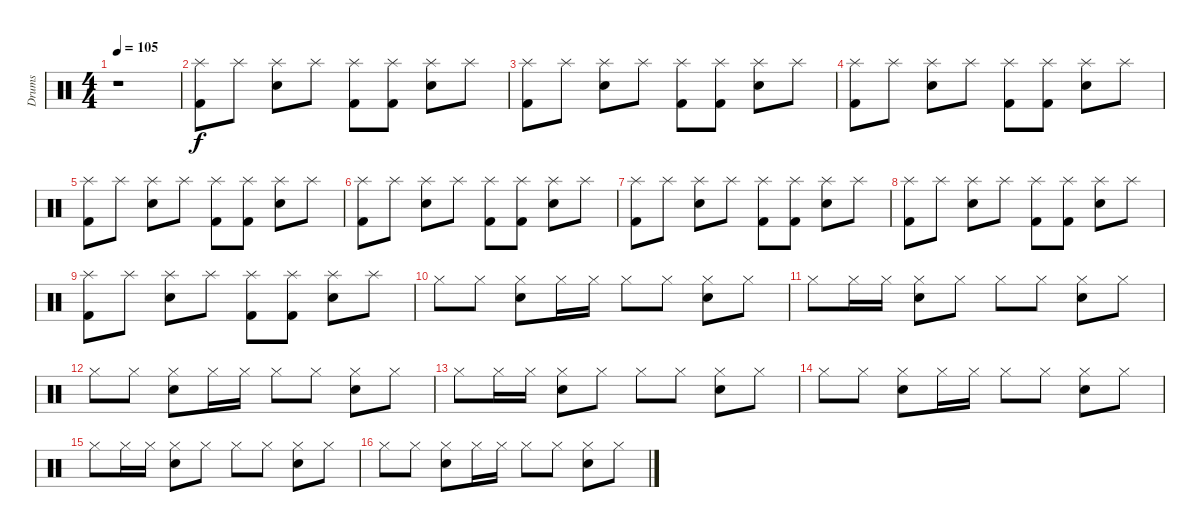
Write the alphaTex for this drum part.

\track ("Drums" "Drums") {instrument percussion}
\staff {score}
\articulation defaults
\ts (4 4)
\tempo 105
\clef neutral
\ks c
r.1{dy f} |
("Splash (hit)" "Kick (hit) 2").8 "Splash (hit)".8 ("Splash (hit)" "Snare (hit) 2").8 "Splash (hit)".8 ("Splash (hit)" "Kick (hit) 2").8 ("Splash (hit)" "Kick (hit) 2").8 ("Splash (hit)" "Snare (hit) 2").8 "Splash (hit)".8 |
("Splash (hit)" "Kick (hit) 2").8 "Splash (hit)".8 ("Splash (hit)" "Snare (hit) 2").8 "Splash (hit)".8 ("Splash (hit)" "Kick (hit) 2").8 ("Splash (hit)" "Kick (hit) 2").8 ("Splash (hit)" "Snare (hit) 2").8 "Splash (hit)".8 |
("Splash (hit)" "Kick (hit) 2").8 "Splash (hit)".8 ("Splash (hit)" "Snare (hit) 2").8 "Splash (hit)".8 ("Splash (hit)" "Kick (hit) 2").8 ("Splash (hit)" "Kick (hit) 2").8 ("Splash (hit)" "Snare (hit) 2").8 "Splash (hit)".8 |
("Splash (hit)" "Kick (hit) 2").8 "Splash (hit)".8 ("Splash (hit)" "Snare (hit) 2").8 "Splash (hit)".8 ("Splash (hit)" "Kick (hit) 2").8 ("Splash (hit)" "Kick (hit) 2").8 ("Splash (hit)" "Snare (hit) 2").8 "Splash (hit)".8 |
("Splash (hit)" "Kick (hit) 2").8 "Splash (hit)".8 ("Splash (hit)" "Snare (hit) 2").8 "Splash (hit)".8 ("Splash (hit)" "Kick (hit) 2").8 ("Splash (hit)" "Kick (hit) 2").8 ("Splash (hit)" "Snare (hit) 2").8 "Splash (hit)".8 |
("Splash (hit)" "Kick (hit) 2").8 "Splash (hit)".8 ("Splash (hit)" "Snare (hit) 2").8 "Splash (hit)".8 ("Splash (hit)" "Kick (hit) 2").8 ("Splash (hit)" "Kick (hit) 2").8 ("Splash (hit)" "Snare (hit) 2").8 "Splash (hit)".8 |
("Splash (hit)" "Kick (hit) 2").8 "Splash (hit)".8 ("Splash (hit)" "Snare (hit) 2").8 "Splash (hit)".8 ("Splash (hit)" "Kick (hit) 2").8 ("Splash (hit)" "Kick (hit) 2").8 ("Splash (hit)" "Snare (hit) 2").8 "Splash (hit)".8 |
("Splash (hit)" "Kick (hit) 2").8 "Splash (hit)".8 ("Splash (hit)" "Snare (hit) 2").8 "Splash (hit)".8 ("Splash (hit)" "Kick (hit) 2").8 ("Splash (hit)" "Kick (hit) 2").8 ("Splash (hit)" "Snare (hit) 2").8 "Splash (hit)".8 |
"Hi-Hat (closed)".8 "Hi-Hat (closed)".8 ("Hi-Hat (closed)" "Snare (hit) 2").8 "Hi-Hat (closed)".16 "Hi-Hat (closed)".16 "Hi-Hat (closed)".8 "Hi-Hat (closed)".8 ("Hi-Hat (closed)" "Snare (hit) 2").8 "Hi-Hat (closed)".8 |
"Hi-Hat (closed)".8 "Hi-Hat (closed)".16 "Hi-Hat (closed)".16 ("Hi-Hat (closed)" "Snare (hit) 2").8 "Hi-Hat (closed)".8 "Hi-Hat (closed)".8 "Hi-Hat (closed)".8 ("Hi-Hat (closed)" "Snare (hit) 2").8 "Hi-Hat (closed)".8 |
"Hi-Hat (closed)".8 "Hi-Hat (closed)".8 ("Hi-Hat (closed)" "Snare (hit) 2").8 "Hi-Hat (closed)".16 "Hi-Hat (closed)".16 "Hi-Hat (closed)".8 "Hi-Hat (closed)".8 ("Hi-Hat (closed)" "Snare (hit) 2").8 "Hi-Hat (closed)".8 |
"Hi-Hat (closed)".8 "Hi-Hat (closed)".16 "Hi-Hat (closed)".16 ("Hi-Hat (closed)" "Snare (hit) 2").8 "Hi-Hat (closed)".8 "Hi-Hat (closed)".8 "Hi-Hat (closed)".8 ("Hi-Hat (closed)" "Snare (hit) 2").8 "Hi-Hat (closed)".8 |
"Hi-Hat (closed)".8 "Hi-Hat (closed)".8 ("Hi-Hat (closed)" "Snare (hit) 2").8 "Hi-Hat (closed)".16 "Hi-Hat (closed)".16 "Hi-Hat (closed)".8 "Hi-Hat (closed)".8 ("Hi-Hat (closed)" "Snare (hit) 2").8 "Hi-Hat (closed)".8 |
"Hi-Hat (closed)".8 "Hi-Hat (closed)".16 "Hi-Hat (closed)".16 ("Hi-Hat (closed)" "Snare (hit) 2").8 "Hi-Hat (closed)".8 "Hi-Hat (closed)".8 "Hi-Hat (closed)".8 ("Hi-Hat (closed)" "Snare (hit) 2").8 "Hi-Hat (closed)".8 |
"Hi-Hat (closed)".8 "Hi-Hat (closed)".8 ("Hi-Hat (closed)" "Snare (hit) 2").8 "Hi-Hat (closed)".16 "Hi-Hat (closed)".16 "Hi-Hat (closed)".8 "Hi-Hat (closed)".8 ("Hi-Hat (closed)" "Snare (hit) 2").8 "Hi-Hat (closed)".8
